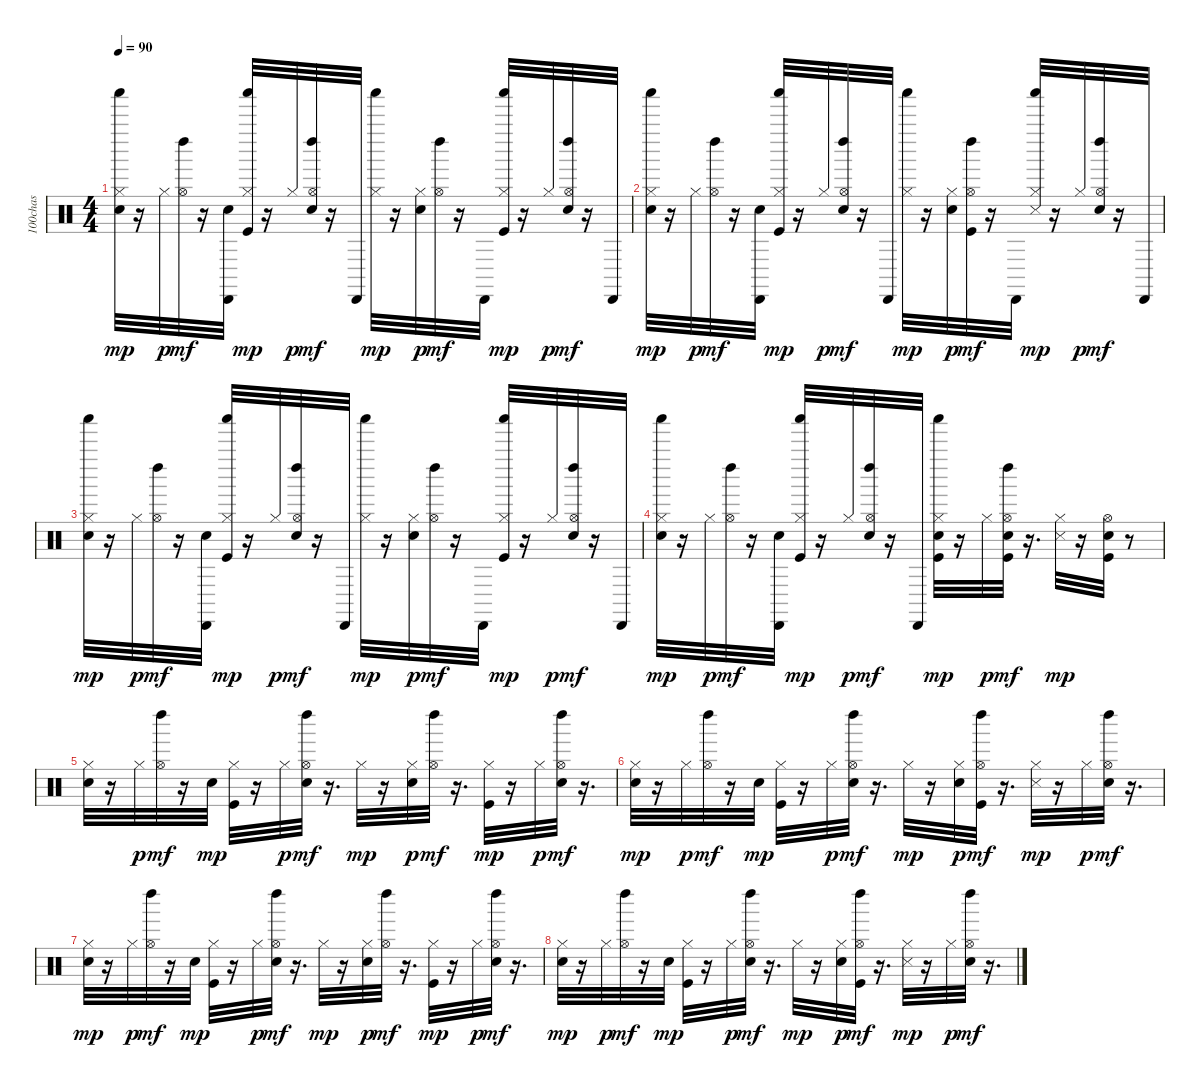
\track ("100chas" "100chas") {instrument percussion}
\staff {score}
\articulation defaults
\ts (4 4)
\tempo 90
\clef neutral
\ks c
("Hand Clap (hit)" "Hi-Hat (closed)" "Shaker (hit)").32{dy mp} r.16 "Hi-Hat (closed)".32{dy p} ("Hi-Hat (open)" "Left Maraca (hit)").32{dy mf} r.16 ("Hand Clap (hit)" "Cabasa (hit)").32 ("Kick (hit)" "Hi-Hat (closed)" "Shaker (hit)").32{dy mp} r.16 "Hi-Hat (closed)".32{dy p} ("Hand Clap (hit)" "Hi-Hat (open)" "Left Maraca (hit)").32{dy mf} r.16 "Cabasa (hit)".32 ("Hi-Hat (closed)" "Shaker (hit)").32{dy mp} r.16 ("Hand Clap (hit)" "Hi-Hat (closed)").32{dy p} ("Hi-Hat (open)" "Left Maraca (hit)").32{dy mf} r.16 "Cabasa (hit)".32 ("Kick (hit)" "Hi-Hat (closed)" "Shaker (hit)").32{dy mp} r.16 "Hi-Hat (closed)".32{dy p} ("Hand Clap (hit)" "Hi-Hat (open)" "Left Maraca (hit)").32{dy mf} r.16 "Cabasa (hit)".32 |
("Hand Clap (hit)" "Hi-Hat (closed)" "Shaker (hit)").32{dy mp} r.16 "Hi-Hat (closed)".32{dy p} ("Hi-Hat (open)" "Left Maraca (hit)").32{dy mf} r.16 ("Hand Clap (hit)" "Cabasa (hit)").32 ("Kick (hit)" "Hi-Hat (closed)" "Shaker (hit)").32{dy mp} r.16 "Hi-Hat (closed)".32{dy p} ("Hand Clap (hit)" "Hi-Hat (open)" "Left Maraca (hit)").32{dy mf} r.16 "Cabasa (hit)".32 ("Hi-Hat (closed)" "Shaker (hit)").32{dy mp} r.16 ("Hand Clap (hit)" "Hi-Hat (closed)").32{dy p} ("Kick (hit)" "Hi-Hat (open)" "Left Maraca (hit)").32{dy mf} r.16 "Cabasa (hit)".32 ("Snare (side stick) 3" "Hi-Hat (closed)" "Shaker (hit)").32{dy mp} r.16 "Hi-Hat (closed)".32{dy p} ("Hand Clap (hit)" "Hi-Hat (open)" "Left Maraca (hit)").32{dy mf} r.16 "Cabasa (hit)".32 |
("Hand Clap (hit)" "Hi-Hat (closed)" "Shaker (hit)").32{dy mp} r.16 "Hi-Hat (closed)".32{dy p} ("Hi-Hat (open)" "Left Maraca (hit)").32{dy mf} r.16 ("Hand Clap (hit)" "Cabasa (hit)").32 ("Kick (hit)" "Hi-Hat (closed)" "Shaker (hit)").32{dy mp} r.16 "Hi-Hat (closed)".32{dy p} ("Hand Clap (hit)" "Hi-Hat (open)" "Left Maraca (hit)").32{dy mf} r.16 "Cabasa (hit)".32 ("Hi-Hat (closed)" "Shaker (hit)").32{dy mp} r.16 ("Hand Clap (hit)" "Hi-Hat (closed)").32{dy p} ("Hi-Hat (open)" "Left Maraca (hit)").32{dy mf} r.16 "Cabasa (hit)".32 ("Kick (hit)" "Hi-Hat (closed)" "Shaker (hit)").32{dy mp} r.16 "Hi-Hat (closed)".32{dy p} ("Hand Clap (hit)" "Hi-Hat (open)" "Left Maraca (hit)").32{dy mf} r.16 "Cabasa (hit)".32 |
("Hand Clap (hit)" "Hi-Hat (closed)" "Shaker (hit)").32{dy mp} r.16 "Hi-Hat (closed)".32{dy p} ("Hi-Hat (open)" "Left Maraca (hit)").32{dy mf} r.16 ("Hand Clap (hit)" "Cabasa (hit)").32 ("Kick (hit)" "Hi-Hat (closed)" "Shaker (hit)").32{dy mp} r.16 "Hi-Hat (closed)".32{dy p} ("Hand Clap (hit)" "Hi-Hat (open)" "Left Maraca (hit)").32{dy mf} r.16 "Cabasa (hit)".32 ("Kick (hit)" "Hand Clap (hit)" "Hi-Hat (closed)" "Shaker (hit)").32{dy mp} r.16 "Hi-Hat (closed)".32{dy p} ("Kick (hit)" "Hand Clap (hit)" "Hi-Hat (open)" "Left Maraca (hit)").32{dy mf} r.16{d} ("Snare (side stick) 3" "Hi-Hat (closed)").32{dy mp} r.16 ("Kick (hit)" "Hand Clap (hit)" "Hi-Hat (open)").32 r.8 |
("Hand Clap (hit)" "Hi-Hat (closed)").32 r.16 "Hi-Hat (closed)".32{dy p} ("Hi-Hat (open)" "Left Maraca (hit)").32{dy mf} r.16 "Hand Clap (hit)".32{dy mp} ("Kick (hit)" "Hi-Hat (closed)").32 r.16 "Hi-Hat (closed)".32{dy p} ("Hand Clap (hit)" "Hi-Hat (open)" "Left Maraca (hit)").32{dy mf} r.16{d} "Hi-Hat (closed)".32{dy mp} r.16 ("Hand Clap (hit)" "Hi-Hat (closed)").32{dy p} ("Hi-Hat (open)" "Left Maraca (hit)").32{dy mf} r.16{d} ("Kick (hit)" "Hi-Hat (closed)").32{dy mp} r.16 "Hi-Hat (closed)".32{dy p} ("Hand Clap (hit)" "Hi-Hat (open)" "Left Maraca (hit)").32{dy mf} r.16{d} |
("Hand Clap (hit)" "Hi-Hat (closed)").32{dy mp} r.16 "Hi-Hat (closed)".32{dy p} ("Hi-Hat (open)" "Left Maraca (hit)").32{dy mf} r.16 "Hand Clap (hit)".32{dy mp} ("Kick (hit)" "Hi-Hat (closed)").32 r.16 "Hi-Hat (closed)".32{dy p} ("Hand Clap (hit)" "Hi-Hat (open)" "Left Maraca (hit)").32{dy mf} r.16{d} "Hi-Hat (closed)".32{dy mp} r.16 ("Hand Clap (hit)" "Hi-Hat (closed)").32{dy p} ("Kick (hit)" "Hi-Hat (open)" "Left Maraca (hit)").32{dy mf} r.16{d} ("Snare (side stick) 3" "Hi-Hat (closed)").32{dy mp} r.16 "Hi-Hat (closed)".32{dy p} ("Hand Clap (hit)" "Hi-Hat (open)" "Left Maraca (hit)").32{dy mf} r.16{d} |
("Hand Clap (hit)" "Hi-Hat (closed)").32{dy mp} r.16 "Hi-Hat (closed)".32{dy p} ("Hi-Hat (open)" "Left Maraca (hit)").32{dy mf} r.16 "Hand Clap (hit)".32{dy mp} ("Kick (hit)" "Hi-Hat (closed)").32 r.16 "Hi-Hat (closed)".32{dy p} ("Hand Clap (hit)" "Hi-Hat (open)" "Left Maraca (hit)").32{dy mf} r.16{d} "Hi-Hat (closed)".32{dy mp} r.16 ("Hand Clap (hit)" "Hi-Hat (closed)").32{dy p} ("Hi-Hat (open)" "Left Maraca (hit)").32{dy mf} r.16{d} ("Kick (hit)" "Hi-Hat (closed)").32{dy mp} r.16 "Hi-Hat (closed)".32{dy p} ("Hand Clap (hit)" "Hi-Hat (open)" "Left Maraca (hit)").32{dy mf} r.16{d} |
("Hand Clap (hit)" "Hi-Hat (closed)").32{dy mp} r.16 "Hi-Hat (closed)".32{dy p} ("Hi-Hat (open)" "Left Maraca (hit)").32{dy mf} r.16 "Hand Clap (hit)".32{dy mp} ("Kick (hit)" "Hi-Hat (closed)").32 r.16 "Hi-Hat (closed)".32{dy p} ("Hand Clap (hit)" "Hi-Hat (open)" "Left Maraca (hit)").32{dy mf} r.16{d} "Hi-Hat (closed)".32{dy mp} r.16 ("Hand Clap (hit)" "Hi-Hat (closed)").32{dy p} ("Kick (hit)" "Hi-Hat (open)" "Left Maraca (hit)").32{dy mf} r.16{d} ("Snare (side stick) 3" "Hi-Hat (closed)").32{dy mp} r.16 "Hi-Hat (closed)".32{dy p} ("Hand Clap (hit)" "Hi-Hat (open)" "Left Maraca (hit)").32{dy mf} r.16{d}
